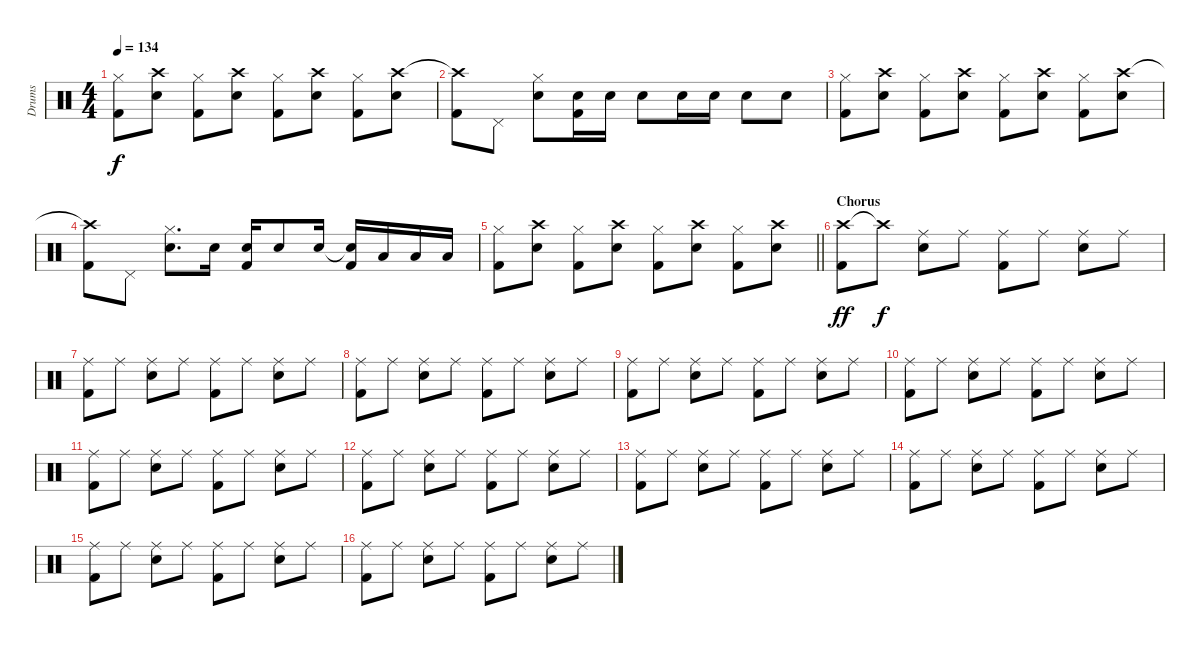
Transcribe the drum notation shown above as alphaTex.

\track ("Drums" "Drums") {instrument percussion}
\staff {score}
\articulation defaults
\ts (4 4)
\tempo 134
\clef neutral
\ks c
("Hi-Hat (closed)" "Kick (hit) 2").8{dy f} ("Crash high (hit)" "Snare (hit) 2").8 ("Hi-Hat (closed)" "Kick (hit) 2").8 ("Crash high (hit)" "Snare (hit) 2").8 ("Hi-Hat (closed)" "Kick (hit) 2").8 ("Crash high (hit)" "Snare (hit) 2").8 ("Hi-Hat (closed)" "Kick (hit) 2").8 ("Crash high (hit)" "Snare (hit) 2").8 |
("Crash high (hit)"{t} "Kick (hit) 2").8 "Pedal Hi-Hat (hit)".8 ("Hi-Hat (closed)" "Snare (hit) 2").8 ("Snare (hit) 2" "Kick (hit) 2").16 "Snare (hit) 2".16 "Snare (hit) 2".8 "Snare (hit) 2".16 "Snare (hit) 2".16 "Snare (hit) 2".8 "Snare (hit) 2".8 |
("Hi-Hat (closed)" "Kick (hit) 2").8 ("Crash high (hit)" "Snare (hit) 2").8 ("Hi-Hat (closed)" "Kick (hit) 2").8 ("Crash high (hit)" "Snare (hit) 2").8 ("Hi-Hat (closed)" "Kick (hit) 2").8 ("Crash high (hit)" "Snare (hit) 2").8 ("Hi-Hat (closed)" "Kick (hit) 2").8 ("Crash high (hit)" "Snare (hit) 2").8 |
("Crash high (hit)"{t} "Kick (hit) 2").8 "Pedal Hi-Hat (hit)".8 ("Hi-Hat (closed)" "Snare (hit) 2").8{d} "Snare (hit) 2".16 ("Snare (hit) 2" "Kick (hit) 2").16 "Snare (hit) 2".8 "Snare (hit) 2".16 ("Snare (hit)"{t} "Kick (hit) 2").16 "Low Tom (hit)".16 "Low Tom (hit)".16 "Low Tom (hit)".16 |
\barLineRight lightlight
("Hi-Hat (closed)" "Kick (hit) 2").8 ("Crash high (hit)" "Snare (hit) 2").8 ("Hi-Hat (closed)" "Kick (hit) 2").8 ("Crash high (hit)" "Snare (hit) 2").8 ("Hi-Hat (closed)" "Kick (hit) 2").8 ("Crash high (hit)" "Snare (hit) 2").8 ("Hi-Hat (closed)" "Kick (hit) 2").8 ("Crash high (hit)" "Snare (hit) 2").8 |
\section ("" "Chorus")
("Crash high (hit)" "Kick (hit) 2").8{dy ff} "Crash high (hit)"{t}.8{dy f} ("Ride (middle)" "Snare (hit) 2").8 "Ride (middle)".8 ("Ride (middle)" "Kick (hit) 2").8 "Ride (middle)".8 ("Ride (middle)" "Snare (hit) 2").8 "Ride (middle)".8 |
("Ride (middle)" "Kick (hit) 2").8 "Ride (middle)".8 ("Ride (middle)" "Snare (hit) 2").8 "Ride (middle)".8 ("Ride (middle)" "Kick (hit) 2").8 "Ride (middle)".8 ("Ride (middle)" "Snare (hit) 2").8 "Ride (middle)".8 |
("Ride (middle)" "Kick (hit) 2").8 "Ride (middle)".8 ("Ride (middle)" "Snare (hit) 2").8 "Ride (middle)".8 ("Ride (middle)" "Kick (hit) 2").8 "Ride (middle)".8 ("Ride (middle)" "Snare (hit) 2").8 "Ride (middle)".8 |
("Ride (middle)" "Kick (hit) 2").8 "Ride (middle)".8 ("Ride (middle)" "Snare (hit) 2").8 "Ride (middle)".8 ("Ride (middle)" "Kick (hit) 2").8 "Ride (middle)".8 ("Ride (middle)" "Snare (hit) 2").8 "Ride (middle)".8 |
("Ride (middle)" "Kick (hit) 2").8 "Ride (middle)".8 ("Ride (middle)" "Snare (hit) 2").8 "Ride (middle)".8 ("Ride (middle)" "Kick (hit) 2").8 "Ride (middle)".8 ("Ride (middle)" "Snare (hit) 2").8 "Ride (middle)".8 |
("Ride (middle)" "Kick (hit) 2").8 "Ride (middle)".8 ("Ride (middle)" "Snare (hit) 2").8 "Ride (middle)".8 ("Ride (middle)" "Kick (hit) 2").8 "Ride (middle)".8 ("Ride (middle)" "Snare (hit) 2").8 "Ride (middle)".8 |
("Ride (middle)" "Kick (hit) 2").8 "Ride (middle)".8 ("Ride (middle)" "Snare (hit) 2").8 "Ride (middle)".8 ("Ride (middle)" "Kick (hit) 2").8 "Ride (middle)".8 ("Ride (middle)" "Snare (hit) 2").8 "Ride (middle)".8 |
("Ride (middle)" "Kick (hit) 2").8 "Ride (middle)".8 ("Ride (middle)" "Snare (hit) 2").8 "Ride (middle)".8 ("Ride (middle)" "Kick (hit) 2").8 "Ride (middle)".8 ("Ride (middle)" "Snare (hit) 2").8 "Ride (middle)".8 |
("Ride (middle)" "Kick (hit) 2").8 "Ride (middle)".8 ("Ride (middle)" "Snare (hit) 2").8 "Ride (middle)".8 ("Ride (middle)" "Kick (hit) 2").8 "Ride (middle)".8 ("Ride (middle)" "Snare (hit) 2").8 "Ride (middle)".8 |
("Ride (middle)" "Kick (hit) 2").8 "Ride (middle)".8 ("Ride (middle)" "Snare (hit) 2").8 "Ride (middle)".8 ("Ride (middle)" "Kick (hit) 2").8 "Ride (middle)".8 ("Ride (middle)" "Snare (hit) 2").8 "Ride (middle)".8 |
("Ride (middle)" "Kick (hit) 2").8 "Ride (middle)".8 ("Ride (middle)" "Snare (hit) 2").8 "Ride (middle)".8 ("Ride (middle)" "Kick (hit) 2").8 "Ride (middle)".8 ("Ride (middle)" "Snare (hit) 2").8 "Ride (middle)".8
